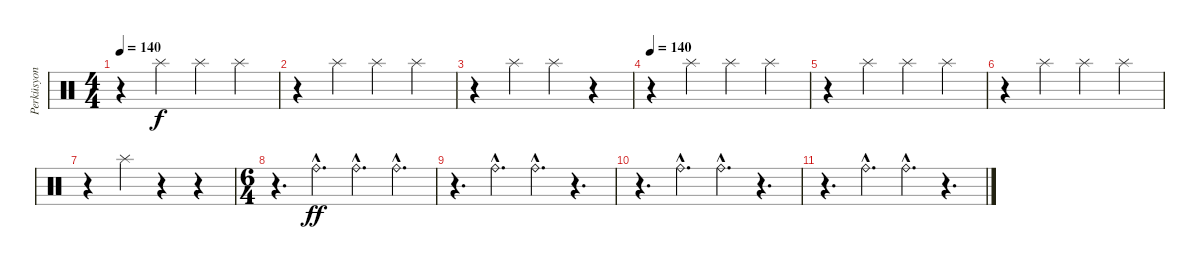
\track ("Perküsyon" "Perküsyon") {instrument percussion}
\staff {score}
\articulation defaults
\ts (4 4)
\tempo 140
\clef neutral
\ks c
r.4{dy f} "Splash (hit)".4 "Splash (hit)".4 "Splash (hit)".4 |
r.4 "Splash (hit)".4 "Splash (hit)".4 "Splash (hit)".4 |
r.4 "Splash (hit)".4 "Splash (hit)".4 r.4 |
\tempo 140
r.4 "Splash (hit)".4 "Splash (hit)".4 "Splash (hit)".4 |
r.4 "Splash (hit)".4 "Splash (hit)".4 "Splash (hit)".4 |
r.4 "Splash (hit)".4 "Splash (hit)".4 "Splash (hit)".4 |
r.4 "Splash (hit)".4 r.4 r.4 |
\ts (6 4)
r.4{d} "Ride (bell)"{hac}.4{d dy ff} "Ride (bell)"{hac}.4{d} "Ride (bell)"{hac}.4{d} |
r.4{d} "Ride (bell)"{hac}.4{d} "Ride (bell)"{hac}.4{d} r.4{d} |
r.4{d} "Ride (bell)"{hac}.4{d} "Ride (bell)"{hac}.4{d} r.4{d} |
r.4{d} "Ride (bell)"{hac}.4{d} "Ride (bell)"{hac}.4{d} r.4{d}
